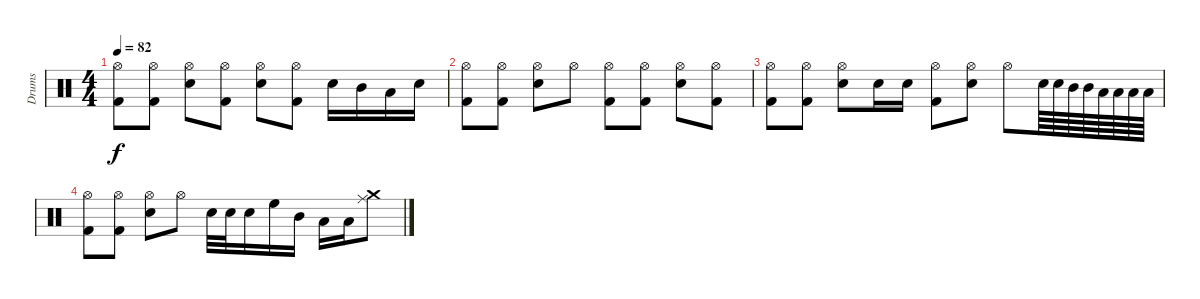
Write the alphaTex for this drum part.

\track ("Drums" "Drums") {instrument percussion}
\staff {score}
\articulation defaults
\ts (4 4)
\tempo 82
\clef neutral
\ks c
("Hi-Hat (open)" "Kick (hit) 2").8{dy f} ("Hi-Hat (open)" "Kick (hit) 2").8 ("Hi-Hat (open)" "Snare (hit) 2").8 ("Hi-Hat (open)" "Kick (hit) 2").8 ("Hi-Hat (open)" "Snare (hit) 2").8 ("Hi-Hat (open)" "Kick (hit) 2").8 "Snare (hit) 2".16 "Mid Tom (hit)".16 "Low Floor Tom (hit)".16 "Snare (hit) 2".16 |
("Hi-Hat (open)" "Kick (hit) 2").8 ("Hi-Hat (open)" "Kick (hit) 2").8 ("Hi-Hat (open)" "Snare (hit) 2").8 "Hi-Hat (open)".8 ("Hi-Hat (open)" "Kick (hit) 2").8 ("Hi-Hat (open)" "Kick (hit) 2").8 ("Hi-Hat (open)" "Snare (hit) 2").8 ("Hi-Hat (open)" "Kick (hit) 2").8 |
("Hi-Hat (open)" "Kick (hit) 2").8 ("Hi-Hat (open)" "Kick (hit) 2").8 ("Hi-Hat (open)" "Snare (hit) 2").8 "Snare (hit) 2".16 "Snare (hit) 2".16 ("Hi-Hat (open)" "Kick (hit) 2").8 ("Hi-Hat (open)" "Snare (hit) 2").8 "Hi-Hat (open)".8 "Snare (hit) 2".64 "Snare (hit) 2".64 "Mid Tom (hit)".64 "Mid Tom (hit)".64 "Low Tom (hit)".64 "Low Tom (hit)".64 "Low Floor Tom (hit)".64 "Low Floor Tom (hit)".64 |
("Hi-Hat (open)" "Kick (hit) 2").8 ("Hi-Hat (open)" "Kick (hit) 2").8 ("Hi-Hat (open)" "Snare (hit) 2").8 "Hi-Hat (open)".8 "Snare (hit) 2".32 "Snare (hit) 2".32 "Snare (hit) 2".16 "High Floor Tom (hit)".16 "Mid Tom (hit)".16 "Low Tom (hit)".16 "Low Floor Tom (hit)".16 ("Crash medium (hit)" "Ride (middle)").8
